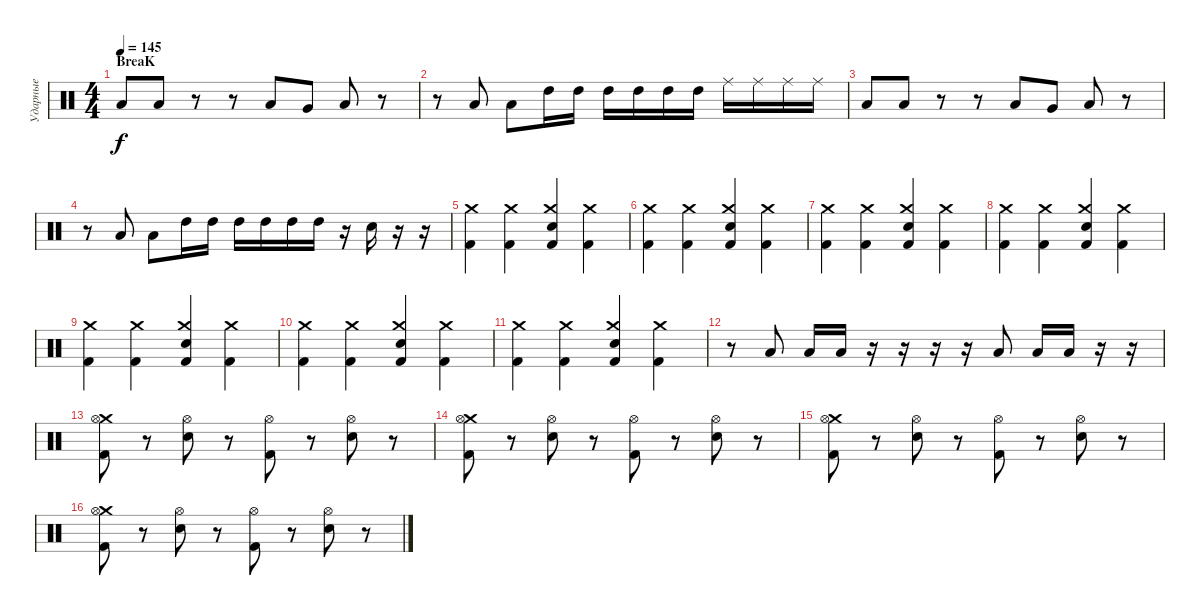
\track ("Ударные" "Ударные") {instrument percussion}
\staff {score}
\articulation defaults
\ts (4 4)
\section ("" "BreaK")
\tempo 145
\clef neutral
\ks c "Low Tom (hit)".8{dy f} "Low Tom (hit)".8
r.8 r.8 "Low Tom (hit)".8 "Very Low Tom (hit)".8 "Low Floor Tom (hit)".8 r.8 |
r.8 "Low Floor Tom (hit)".8 "Low Floor Tom (hit)".8 "High Tom (hit)".16 "High Tom (hit)".16 "High Tom (hit)".16 "High Tom (hit)".16 "High Tom (hit)".16 "High Tom (hit)".16 "Ride (middle)".16 "Ride (middle)".16 "Ride (middle)".16 "Ride (middle)".16 |
"Low Tom (hit)".8 "Low Tom (hit)".8 r.8 r.8 "Low Tom (hit)".8 "Very Low Tom (hit)".8 "Low Floor Tom (hit)".8 r.8 |
r.8 "Low Floor Tom (hit)".8 "Low Floor Tom (hit)".8 "High Tom (hit)".16 "High Tom (hit)".16 "High Tom (hit)".16 "High Tom (hit)".16 "High Tom (hit)".16 "High Tom (hit)".16 r.16 "Electric Snare (hit)".16 r.16 r.16 |
("Crash medium (hit)" "Kick (hit) 2").4 ("Crash medium (hit)" "Kick (hit) 2").4 ("Crash medium (hit)" "Electric Snare (hit)" "Kick (hit) 2").4 ("Crash medium (hit)" "Kick (hit) 2").4 |
("Crash medium (hit)" "Kick (hit) 2").4 ("Crash medium (hit)" "Kick (hit) 2").4 ("Crash medium (hit)" "Electric Snare (hit)" "Kick (hit) 2").4 ("Crash medium (hit)" "Kick (hit) 2").4 |
("Crash medium (hit)" "Kick (hit) 2").4 ("Crash medium (hit)" "Kick (hit) 2").4 ("Crash medium (hit)" "Electric Snare (hit)" "Kick (hit) 2").4 ("Crash medium (hit)" "Kick (hit) 2").4 |
("Crash medium (hit)" "Kick (hit) 2").4 ("Crash medium (hit)" "Kick (hit) 2").4 ("Crash medium (hit)" "Electric Snare (hit)" "Kick (hit) 2").4 ("Crash medium (hit)" "Kick (hit) 2").4 |
("Crash medium (hit)" "Kick (hit) 2").4 ("Crash medium (hit)" "Kick (hit) 2").4 ("Crash medium (hit)" "Electric Snare (hit)" "Kick (hit) 2").4 ("Crash medium (hit)" "Kick (hit) 2").4 |
("Crash medium (hit)" "Kick (hit) 2").4 ("Crash medium (hit)" "Kick (hit) 2").4 ("Crash medium (hit)" "Electric Snare (hit)" "Kick (hit) 2").4 ("Crash medium (hit)" "Kick (hit) 2").4 |
("Crash medium (hit)" "Kick (hit) 2").4 ("Crash medium (hit)" "Kick (hit) 2").4 ("Crash medium (hit)" "Electric Snare (hit)" "Kick (hit) 2").4 ("Crash medium (hit)" "Kick (hit) 2").4 |
r.8 "Low Tom (hit)".8 "Low Floor Tom (hit)".16 "Low Floor Tom (hit)".16 r.16 r.16 r.16 r.16 "Low Tom (hit)".8 "Low Floor Tom (hit)".16 "Low Floor Tom (hit)".16 r.16 r.16 |
("Crash medium (hit)" "Hi-Hat (open)" "Kick (hit) 2").8 r.8 ("Hi-Hat (open)" "Electric Snare (hit)").8 r.8 ("Hi-Hat (open)" "Kick (hit) 2").8 r.8 ("Hi-Hat (open)" "Electric Snare (hit)").8 r.8 |
("Crash medium (hit)" "Hi-Hat (open)" "Kick (hit) 2").8 r.8 ("Hi-Hat (open)" "Electric Snare (hit)").8 r.8 ("Hi-Hat (open)" "Kick (hit) 2").8 r.8 ("Hi-Hat (open)" "Electric Snare (hit)").8 r.8 |
("Crash medium (hit)" "Hi-Hat (open)" "Kick (hit) 2").8 r.8 ("Hi-Hat (open)" "Electric Snare (hit)").8 r.8 ("Hi-Hat (open)" "Kick (hit) 2").8 r.8 ("Hi-Hat (open)" "Electric Snare (hit)").8 r.8 |
("Crash medium (hit)" "Hi-Hat (open)" "Kick (hit) 2").8 r.8 ("Hi-Hat (open)" "Electric Snare (hit)").8 r.8 ("Hi-Hat (open)" "Kick (hit) 2").8 r.8 ("Hi-Hat (open)" "Electric Snare (hit)").8 r.8
